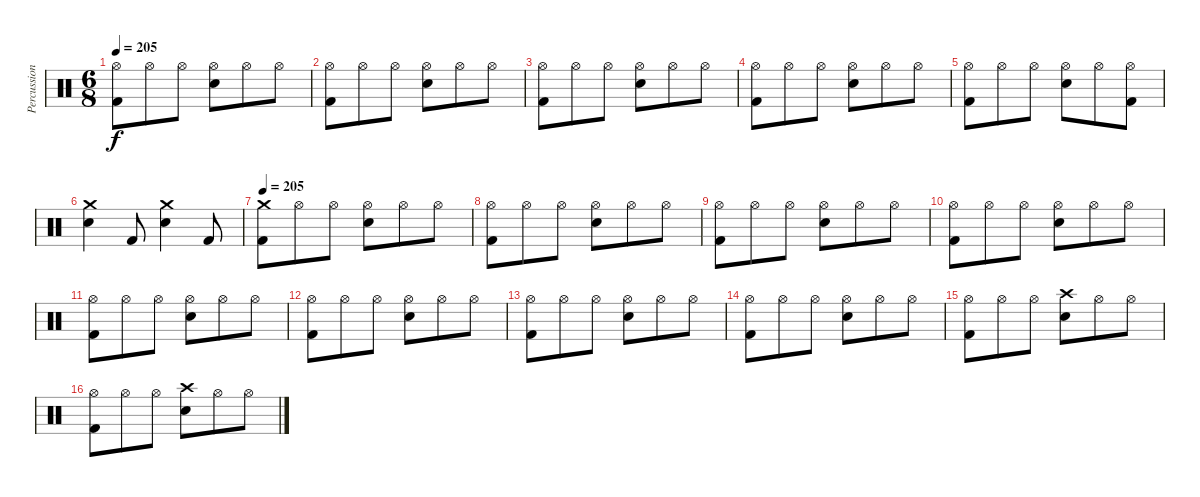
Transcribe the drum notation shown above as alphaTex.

\track ("Percussion" "Percussion") {instrument percussion}
\staff {score}
\articulation defaults
\ts (6 8)
\tempo 205
\clef neutral
\ks c
("Hi-Hat (open)" "Kick (hit) 2").8{dy f} "Hi-Hat (open)".8 "Hi-Hat (open)".8 ("Hi-Hat (open)" "Electric Snare (hit)").8 "Hi-Hat (open)".8 "Hi-Hat (open)".8 |
("Hi-Hat (open)" "Kick (hit) 2").8 "Hi-Hat (open)".8 "Hi-Hat (open)".8 ("Hi-Hat (open)" "Electric Snare (hit)").8 "Hi-Hat (open)".8 "Hi-Hat (open)".8 |
("Hi-Hat (open)" "Kick (hit) 2").8 "Hi-Hat (open)".8 "Hi-Hat (open)".8 ("Hi-Hat (open)" "Electric Snare (hit)").8 "Hi-Hat (open)".8 "Hi-Hat (open)".8 |
("Hi-Hat (open)" "Kick (hit) 2").8 "Hi-Hat (open)".8 "Hi-Hat (open)".8 ("Hi-Hat (open)" "Electric Snare (hit)").8 "Hi-Hat (open)".8 "Hi-Hat (open)".8 |
("Hi-Hat (open)" "Kick (hit) 2").8 "Hi-Hat (open)".8 "Hi-Hat (open)".8 ("Hi-Hat (open)" "Electric Snare (hit)").8 "Hi-Hat (open)".8 ("Hi-Hat (open)" "Kick (hit) 2").8 |
("Crash medium (hit)" "Electric Snare (hit)").4 "Kick (hit) 2".8 ("Crash medium (hit)" "Electric Snare (hit)").4 "Kick (hit) 2".8 |
\tempo 205
("Crash medium (hit)" "Kick (hit) 2").8 "Hi-Hat (open)".8 "Hi-Hat (open)".8 ("Hi-Hat (open)" "Electric Snare (hit)").8 "Hi-Hat (open)".8 "Hi-Hat (open)".8 |
("Hi-Hat (open)" "Kick (hit) 2").8 "Hi-Hat (open)".8 "Hi-Hat (open)".8 ("Hi-Hat (open)" "Electric Snare (hit)").8 "Hi-Hat (open)".8 "Hi-Hat (open)".8 |
("Hi-Hat (open)" "Kick (hit) 2").8 "Hi-Hat (open)".8 "Hi-Hat (open)".8 ("Hi-Hat (open)" "Electric Snare (hit)").8 "Hi-Hat (open)".8 "Hi-Hat (open)".8 |
("Hi-Hat (open)" "Kick (hit) 2").8 "Hi-Hat (open)".8 "Hi-Hat (open)".8 ("Hi-Hat (open)" "Electric Snare (hit)").8 "Hi-Hat (open)".8 "Hi-Hat (open)".8 |
("Hi-Hat (open)" "Kick (hit) 2").8 "Hi-Hat (open)".8 "Hi-Hat (open)".8 ("Hi-Hat (open)" "Electric Snare (hit)").8 "Hi-Hat (open)".8 "Hi-Hat (open)".8 |
("Hi-Hat (open)" "Kick (hit) 2").8 "Hi-Hat (open)".8 "Hi-Hat (open)".8 ("Hi-Hat (open)" "Electric Snare (hit)").8 "Hi-Hat (open)".8 "Hi-Hat (open)".8 |
("Hi-Hat (open)" "Kick (hit) 2").8 "Hi-Hat (open)".8 "Hi-Hat (open)".8 ("Hi-Hat (open)" "Electric Snare (hit)").8 "Hi-Hat (open)".8 "Hi-Hat (open)".8 |
("Hi-Hat (open)" "Kick (hit) 2").8 "Hi-Hat (open)".8 "Hi-Hat (open)".8 ("Hi-Hat (open)" "Electric Snare (hit)").8 "Hi-Hat (open)".8 "Hi-Hat (open)".8 |
("Hi-Hat (open)" "Kick (hit) 2").8 "Hi-Hat (open)".8 "Hi-Hat (open)".8 ("Crash high (hit)" "Electric Snare (hit)").8 "Hi-Hat (open)".8 "Hi-Hat (open)".8 |
("Hi-Hat (open)" "Kick (hit) 2").8 "Hi-Hat (open)".8 "Hi-Hat (open)".8 ("Crash high (hit)" "Electric Snare (hit)").8 "Hi-Hat (open)".8 "Hi-Hat (open)".8
